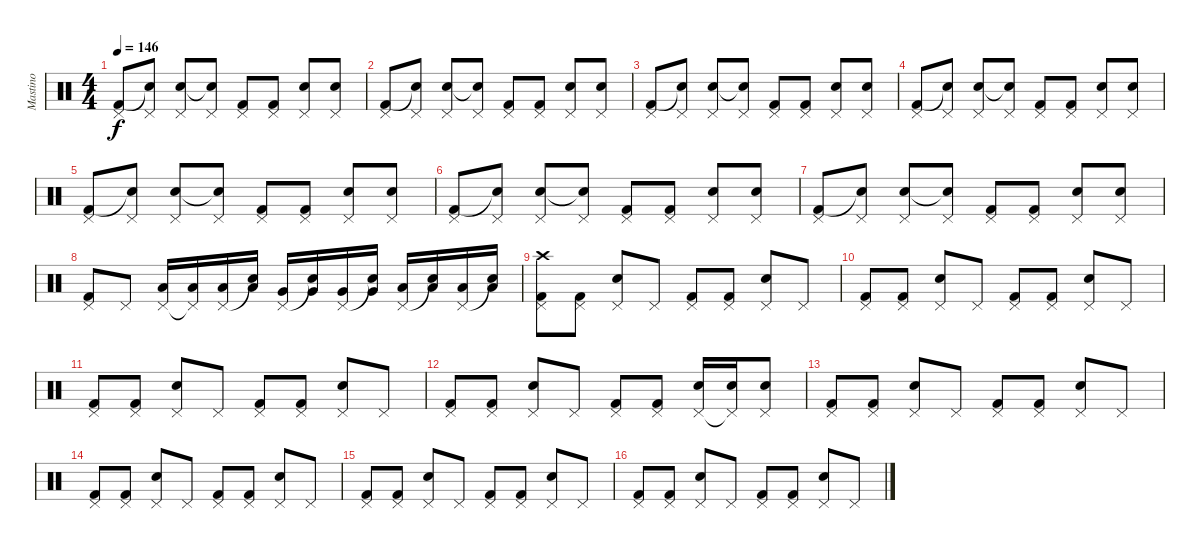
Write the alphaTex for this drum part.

\track ("Mastino" "Mastino") {instrument percussion}
\staff {score}
\articulation defaults
\ts (4 4)
\tempo 146
\clef neutral
\ks c
("Pedal Hi-Hat (hit)" "Kick (hit) 2").8{dy f} ("Pedal Hi-Hat (hit)" "Snare (hit)"{t}).8 ("Pedal Hi-Hat (hit)" "Electric Snare (hit)").8 ("Pedal Hi-Hat (hit)" "Snare (hit)"{t}).8 ("Pedal Hi-Hat (hit)" "Kick (hit) 2").8 ("Pedal Hi-Hat (hit)" "Kick (hit) 2").8 ("Pedal Hi-Hat (hit)" "Electric Snare (hit)").8 ("Pedal Hi-Hat (hit)" "Electric Snare (hit)").8 |
("Pedal Hi-Hat (hit)" "Kick (hit) 2").8 ("Pedal Hi-Hat (hit)" "Snare (hit)"{t}).8 ("Pedal Hi-Hat (hit)" "Electric Snare (hit)").8 ("Pedal Hi-Hat (hit)" "Snare (hit)"{t}).8 ("Pedal Hi-Hat (hit)" "Kick (hit) 2").8 ("Pedal Hi-Hat (hit)" "Kick (hit) 2").8 ("Pedal Hi-Hat (hit)" "Electric Snare (hit)").8 ("Pedal Hi-Hat (hit)" "Electric Snare (hit)").8 |
("Pedal Hi-Hat (hit)" "Kick (hit) 2").8 ("Pedal Hi-Hat (hit)" "Snare (hit)"{t}).8 ("Pedal Hi-Hat (hit)" "Electric Snare (hit)").8 ("Pedal Hi-Hat (hit)" "Snare (hit)"{t}).8 ("Pedal Hi-Hat (hit)" "Kick (hit) 2").8 ("Pedal Hi-Hat (hit)" "Kick (hit) 2").8 ("Pedal Hi-Hat (hit)" "Electric Snare (hit)").8 ("Pedal Hi-Hat (hit)" "Electric Snare (hit)").8 |
("Pedal Hi-Hat (hit)" "Kick (hit) 2").8 ("Pedal Hi-Hat (hit)" "Snare (hit)"{t}).8 ("Pedal Hi-Hat (hit)" "Electric Snare (hit)").8 ("Pedal Hi-Hat (hit)" "Snare (hit)"{t}).8 ("Pedal Hi-Hat (hit)" "Kick (hit) 2").8 ("Pedal Hi-Hat (hit)" "Kick (hit) 2").8 ("Pedal Hi-Hat (hit)" "Electric Snare (hit)").8 ("Pedal Hi-Hat (hit)" "Electric Snare (hit)").8 |
("Pedal Hi-Hat (hit)" "Kick (hit) 2").8 ("Pedal Hi-Hat (hit)" "Snare (hit)"{t}).8 ("Pedal Hi-Hat (hit)" "Electric Snare (hit)").8 ("Pedal Hi-Hat (hit)" "Snare (hit)"{t}).8 ("Pedal Hi-Hat (hit)" "Kick (hit) 2").8 ("Pedal Hi-Hat (hit)" "Kick (hit) 2").8 ("Pedal Hi-Hat (hit)" "Electric Snare (hit)").8 ("Pedal Hi-Hat (hit)" "Electric Snare (hit)").8 |
("Pedal Hi-Hat (hit)" "Kick (hit) 2").8 ("Pedal Hi-Hat (hit)" "Snare (hit)"{t}).8 ("Pedal Hi-Hat (hit)" "Electric Snare (hit)").8 ("Pedal Hi-Hat (hit)" "Snare (hit)"{t}).8 ("Pedal Hi-Hat (hit)" "Kick (hit) 2").8 ("Pedal Hi-Hat (hit)" "Kick (hit) 2").8 ("Pedal Hi-Hat (hit)" "Electric Snare (hit)").8 ("Pedal Hi-Hat (hit)" "Electric Snare (hit)").8 |
("Pedal Hi-Hat (hit)" "Kick (hit) 2").8 ("Pedal Hi-Hat (hit)" "Snare (hit)"{t}).8 ("Pedal Hi-Hat (hit)" "Electric Snare (hit)").8 ("Pedal Hi-Hat (hit)" "Snare (hit)"{t}).8 ("Pedal Hi-Hat (hit)" "Kick (hit) 2").8 ("Pedal Hi-Hat (hit)" "Kick (hit) 2").8 ("Pedal Hi-Hat (hit)" "Electric Snare (hit)").8 ("Pedal Hi-Hat (hit)" "Electric Snare (hit)").8 |
("Pedal Hi-Hat (hit)" "Kick (hit) 2").8 "Pedal Hi-Hat (hit)".8 ("Pedal Hi-Hat (hit)" "Low Tom (hit)").16 ("Pedal Hi-Hat (hit)"{t} "Low Tom (hit)").16 ("Pedal Hi-Hat (hit)" "Low Tom (hit)").16 ("Snare (hit)"{t} "Low Tom (hit)").16 ("Pedal Hi-Hat (hit)" "Very Low Tom (hit)").16 ("Snare (hit)"{t} "Very Low Tom (hit)").16 ("Pedal Hi-Hat (hit)" "Very Low Tom (hit)").16 ("Snare (hit)"{t} "Very Low Tom (hit)").16 ("Pedal Hi-Hat (hit)" "Low Floor Tom (hit)").16 ("Snare (hit)"{t} "Low Floor Tom (hit)").16 ("Pedal Hi-Hat (hit)" "Low Floor Tom (hit)").16 ("Snare (hit)"{t} "Low Floor Tom (hit)").16 |
("Crash high (hit)" "Pedal Hi-Hat (hit)" "Kick (hit) 2").8 ("Pedal Hi-Hat (hit)" "Kick (hit) 2").8 ("Pedal Hi-Hat (hit)" "Electric Snare (hit)").8 "Pedal Hi-Hat (hit)".8 ("Pedal Hi-Hat (hit)" "Kick (hit) 2").8 ("Pedal Hi-Hat (hit)" "Kick (hit) 2").8 ("Pedal Hi-Hat (hit)" "Electric Snare (hit)").8 "Pedal Hi-Hat (hit)".8 |
("Pedal Hi-Hat (hit)" "Kick (hit) 2").8 ("Pedal Hi-Hat (hit)" "Kick (hit) 2").8 ("Pedal Hi-Hat (hit)" "Electric Snare (hit)").8 "Pedal Hi-Hat (hit)".8 ("Pedal Hi-Hat (hit)" "Kick (hit) 2").8 ("Pedal Hi-Hat (hit)" "Kick (hit) 2").8 ("Pedal Hi-Hat (hit)" "Electric Snare (hit)").8 "Pedal Hi-Hat (hit)".8 |
("Pedal Hi-Hat (hit)" "Kick (hit) 2").8 ("Pedal Hi-Hat (hit)" "Kick (hit) 2").8 ("Pedal Hi-Hat (hit)" "Electric Snare (hit)").8 "Pedal Hi-Hat (hit)".8 ("Pedal Hi-Hat (hit)" "Kick (hit) 2").8 ("Pedal Hi-Hat (hit)" "Kick (hit) 2").8 ("Pedal Hi-Hat (hit)" "Electric Snare (hit)").8 "Pedal Hi-Hat (hit)".8 |
("Pedal Hi-Hat (hit)" "Kick (hit) 2").8 ("Pedal Hi-Hat (hit)" "Kick (hit) 2").8 ("Pedal Hi-Hat (hit)" "Electric Snare (hit)").8 "Pedal Hi-Hat (hit)".8 ("Pedal Hi-Hat (hit)" "Kick (hit) 2").8 ("Pedal Hi-Hat (hit)" "Kick (hit) 2").8 ("Pedal Hi-Hat (hit)" "Electric Snare (hit)").16 ("Pedal Hi-Hat (hit)"{t} "Electric Snare (hit)").16 ("Pedal Hi-Hat (hit)" "Electric Snare (hit)").8 |
("Pedal Hi-Hat (hit)" "Kick (hit) 2").8 ("Pedal Hi-Hat (hit)" "Kick (hit) 2").8 ("Pedal Hi-Hat (hit)" "Electric Snare (hit)").8 "Pedal Hi-Hat (hit)".8 ("Pedal Hi-Hat (hit)" "Kick (hit) 2").8 ("Pedal Hi-Hat (hit)" "Kick (hit) 2").8 ("Pedal Hi-Hat (hit)" "Electric Snare (hit)").8 "Pedal Hi-Hat (hit)".8 |
("Pedal Hi-Hat (hit)" "Kick (hit) 2").8 ("Pedal Hi-Hat (hit)" "Kick (hit) 2").8 ("Pedal Hi-Hat (hit)" "Electric Snare (hit)").8 "Pedal Hi-Hat (hit)".8 ("Pedal Hi-Hat (hit)" "Kick (hit) 2").8 ("Pedal Hi-Hat (hit)" "Kick (hit) 2").8 ("Pedal Hi-Hat (hit)" "Electric Snare (hit)").8 "Pedal Hi-Hat (hit)".8 |
("Pedal Hi-Hat (hit)" "Kick (hit) 2").8 ("Pedal Hi-Hat (hit)" "Kick (hit) 2").8 ("Pedal Hi-Hat (hit)" "Electric Snare (hit)").8 "Pedal Hi-Hat (hit)".8 ("Pedal Hi-Hat (hit)" "Kick (hit) 2").8 ("Pedal Hi-Hat (hit)" "Kick (hit) 2").8 ("Pedal Hi-Hat (hit)" "Electric Snare (hit)").8 "Pedal Hi-Hat (hit)".8 |
("Pedal Hi-Hat (hit)" "Kick (hit) 2").8 ("Pedal Hi-Hat (hit)" "Kick (hit) 2").8 ("Pedal Hi-Hat (hit)" "Electric Snare (hit)").8 "Pedal Hi-Hat (hit)".8 ("Pedal Hi-Hat (hit)" "Kick (hit) 2").8 ("Pedal Hi-Hat (hit)" "Kick (hit) 2").8 ("Pedal Hi-Hat (hit)" "Electric Snare (hit)").8 "Pedal Hi-Hat (hit)".8
